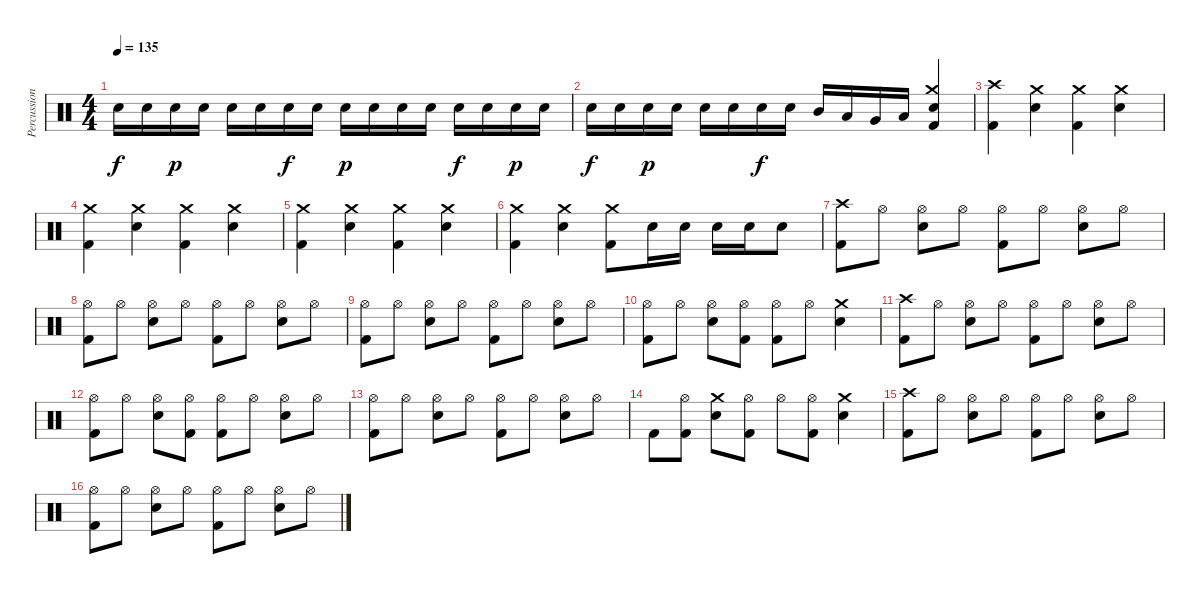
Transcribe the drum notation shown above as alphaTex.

\track ("Percussion" "Percussion") {instrument percussion}
\staff {score}
\articulation defaults
\ts (4 4)
\tempo 135
\clef neutral
\ks c "Electric Snare (hit)".16{dy f} "Electric Snare (hit)".16 "Snare (hit) 2".16{dy p} "Snare (hit) 2".16 "Snare (hit) 2".16 "Snare (hit) 2".16 "Electric Snare (hit)".16{dy f} "Electric Snare (hit)".16 "Snare (hit) 2".16{dy p} "Snare (hit) 2".16 "Snare (hit) 2".16 "Snare (hit) 2".16 "Electric Snare (hit)".16{dy f} "Electric Snare (hit)".16 "Snare (hit) 2".16{dy p} "Snare (hit) 2".16
|
"Electric Snare (hit)".16{dy f} "Electric Snare (hit)".16 "Snare (hit) 2".16{dy p} "Snare (hit) 2".16 "Snare (hit) 2".16 "Snare (hit) 2".16 "Electric Snare (hit)".16{dy f} "Electric Snare (hit)".16 "Mid Tom (hit)".16 "Low Tom (hit)".16 "Very Low Tom (hit)".16 "Low Floor Tom (hit)".16 ("Crash medium (hit)" "Electric Snare (hit)" "Kick (hit) 2").4 |
("Crash high (hit)" "Kick (hit) 2").4 ("Crash medium (hit)" "Electric Snare (hit)").4 ("Crash medium (hit)" "Kick (hit) 2").4 ("Crash medium (hit)" "Electric Snare (hit)").4 |
("Crash medium (hit)" "Kick (hit) 2").4 ("Crash medium (hit)" "Electric Snare (hit)").4 ("Crash medium (hit)" "Kick (hit) 2").4 ("Crash medium (hit)" "Electric Snare (hit)").4 |
("Crash medium (hit)" "Kick (hit) 2").4 ("Crash medium (hit)" "Electric Snare (hit)").4 ("Crash medium (hit)" "Kick (hit) 2").4 ("Crash medium (hit)" "Electric Snare (hit)").4 |
("Crash medium (hit)" "Kick (hit) 2").4 ("Crash medium (hit)" "Electric Snare (hit)").4 ("Crash medium (hit)" "Kick (hit) 2").8 "Electric Snare (hit)".16 "Electric Snare (hit)".16 "Electric Snare (hit)".16 "Electric Snare (hit)".16 "Electric Snare (hit)".8 |
("Crash high (hit)" "Kick (hit) 2").8 "Hi-Hat (open)".8 ("Hi-Hat (open)" "Electric Snare (hit)").8 "Hi-Hat (open)".8 ("Hi-Hat (open)" "Kick (hit) 2").8 "Hi-Hat (open)".8 ("Hi-Hat (open)" "Electric Snare (hit)").8 "Hi-Hat (open)".8 |
("Hi-Hat (open)" "Kick (hit) 2").8 "Hi-Hat (open)".8 ("Hi-Hat (open)" "Electric Snare (hit)").8 "Hi-Hat (open)".8 ("Hi-Hat (open)" "Kick (hit) 2").8 "Hi-Hat (open)".8 ("Hi-Hat (open)" "Electric Snare (hit)").8 "Hi-Hat (open)".8 |
("Hi-Hat (open)" "Kick (hit) 2").8 "Hi-Hat (open)".8 ("Hi-Hat (open)" "Electric Snare (hit)").8 "Hi-Hat (open)".8 ("Hi-Hat (open)" "Kick (hit) 2").8 "Hi-Hat (open)".8 ("Hi-Hat (open)" "Electric Snare (hit)").8 "Hi-Hat (open)".8 |
("Hi-Hat (open)" "Kick (hit) 2").8 "Hi-Hat (open)".8 ("Hi-Hat (open)" "Electric Snare (hit)").8 ("Hi-Hat (open)" "Kick (hit) 2").8 ("Hi-Hat (open)" "Kick (hit) 2").8 "Hi-Hat (open)".8 ("Crash medium (hit)" "Electric Snare (hit)").4 |
("Crash high (hit)" "Kick (hit) 2").8 "Hi-Hat (open)".8 ("Hi-Hat (open)" "Electric Snare (hit)").8 "Hi-Hat (open)".8 ("Hi-Hat (open)" "Kick (hit) 2").8 "Hi-Hat (open)".8 ("Hi-Hat (open)" "Electric Snare (hit)").8 "Hi-Hat (open)".8 |
("Hi-Hat (open)" "Kick (hit) 2").8 "Hi-Hat (open)".8 ("Hi-Hat (open)" "Electric Snare (hit)").8 ("Hi-Hat (open)" "Kick (hit) 2").8 ("Hi-Hat (open)" "Kick (hit) 2").8 "Hi-Hat (open)".8 ("Hi-Hat (open)" "Electric Snare (hit)").8 "Hi-Hat (open)".8 |
("Hi-Hat (open)" "Kick (hit) 2").8 "Hi-Hat (open)".8 ("Hi-Hat (open)" "Electric Snare (hit)").8 "Hi-Hat (open)".8 ("Hi-Hat (open)" "Kick (hit) 2").8 "Hi-Hat (open)".8 ("Hi-Hat (open)" "Electric Snare (hit)").8 "Hi-Hat (open)".8 |
"Kick (hit) 2".8 ("Hi-Hat (open)" "Kick (hit) 2").8 ("Crash medium (hit)" "Electric Snare (hit)").8 ("Hi-Hat (open)" "Kick (hit) 2").8 "Hi-Hat (open)".8 ("Hi-Hat (open)" "Kick (hit) 2").8 ("Crash medium (hit)" "Electric Snare (hit)").4 |
("Crash high (hit)" "Kick (hit) 2").8 "Hi-Hat (open)".8 ("Hi-Hat (open)" "Electric Snare (hit)").8 "Hi-Hat (open)".8 ("Hi-Hat (open)" "Kick (hit) 2").8 "Hi-Hat (open)".8 ("Hi-Hat (open)" "Electric Snare (hit)").8 "Hi-Hat (open)".8 |
("Hi-Hat (open)" "Kick (hit) 2").8 "Hi-Hat (open)".8 ("Hi-Hat (open)" "Electric Snare (hit)").8 "Hi-Hat (open)".8 ("Hi-Hat (open)" "Kick (hit) 2").8 "Hi-Hat (open)".8 ("Hi-Hat (open)" "Electric Snare (hit)").8 "Hi-Hat (open)".8
